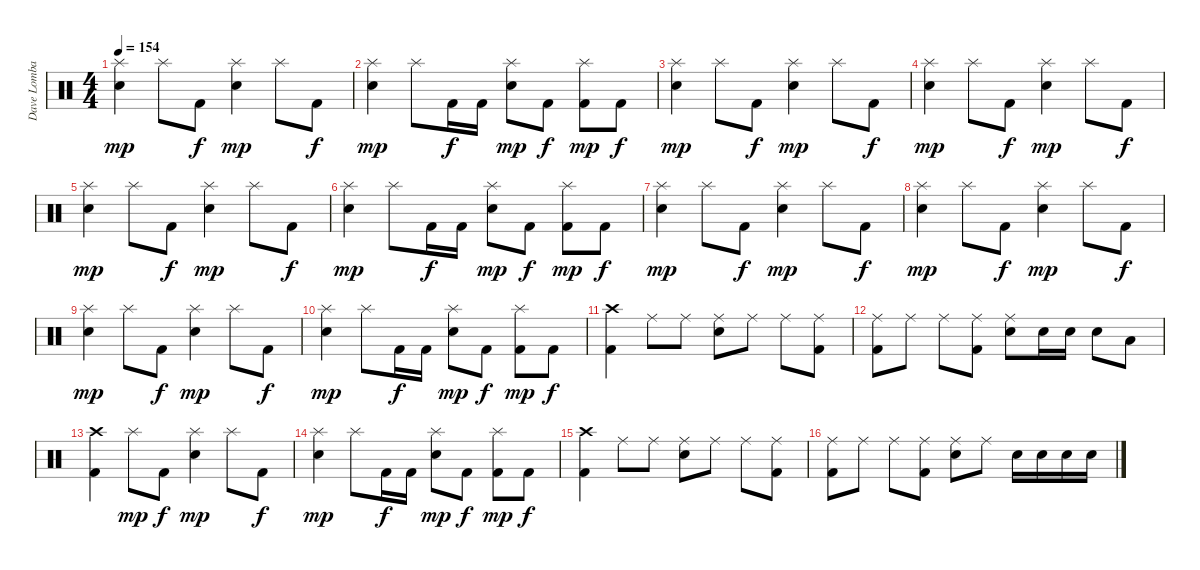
\track ("Dave Lombardo" "Dave Lomba") {instrument percussion}
\staff {score}
\articulation defaults
\ts (4 4)
\tempo 154
\clef neutral
\ks c
("Splash (hit)" "Snare (hit) 2").4{dy mp} "Splash (hit)".8 "Kick (hit) 2".8{dy f} ("Splash (hit)" "Snare (hit) 2").4{dy mp} "Splash (hit)".8 "Kick (hit) 2".8{dy f} |
("Splash (hit)" "Snare (hit) 2").4{dy mp} "Splash (hit)".8 "Kick (hit) 2".16{dy f} "Kick (hit) 2".16 ("Splash (hit)" "Snare (hit) 2").8{dy mp} "Kick (hit) 2".8{dy f} ("Splash (hit)" "Kick (hit) 2").8{dy mp} "Kick (hit) 2".8{dy f} |
("Splash (hit)" "Snare (hit) 2").4{dy mp} "Splash (hit)".8 "Kick (hit) 2".8{dy f} ("Splash (hit)" "Snare (hit) 2").4{dy mp} "Splash (hit)".8 "Kick (hit) 2".8{dy f} |
("Splash (hit)" "Snare (hit) 2").4{dy mp} "Splash (hit)".8 "Kick (hit) 2".8{dy f} ("Splash (hit)" "Snare (hit) 2").4{dy mp} "Splash (hit)".8 "Kick (hit) 2".8{dy f} |
("Splash (hit)" "Snare (hit) 2").4{dy mp} "Splash (hit)".8 "Kick (hit) 2".8{dy f} ("Splash (hit)" "Snare (hit) 2").4{dy mp} "Splash (hit)".8 "Kick (hit) 2".8{dy f} |
("Splash (hit)" "Snare (hit) 2").4{dy mp} "Splash (hit)".8 "Kick (hit) 2".16{dy f} "Kick (hit) 2".16 ("Splash (hit)" "Snare (hit) 2").8{dy mp} "Kick (hit) 2".8{dy f} ("Splash (hit)" "Kick (hit) 2").8{dy mp} "Kick (hit) 2".8{dy f} |
("Splash (hit)" "Snare (hit) 2").4{dy mp} "Splash (hit)".8 "Kick (hit) 2".8{dy f} ("Splash (hit)" "Snare (hit) 2").4{dy mp} "Splash (hit)".8 "Kick (hit) 2".8{dy f} |
("Splash (hit)" "Snare (hit) 2").4{dy mp} "Splash (hit)".8 "Kick (hit) 2".8{dy f} ("Splash (hit)" "Snare (hit) 2").4{dy mp} "Splash (hit)".8 "Kick (hit) 2".8{dy f} |
("Splash (hit)" "Snare (hit) 2").4{dy mp} "Splash (hit)".8 "Kick (hit) 2".8{dy f} ("Splash (hit)" "Snare (hit) 2").4{dy mp} "Splash (hit)".8 "Kick (hit) 2".8{dy f} |
("Splash (hit)" "Snare (hit) 2").4{dy mp} "Splash (hit)".8 "Kick (hit) 2".16{dy f} "Kick (hit) 2".16 ("Splash (hit)" "Snare (hit) 2").8{dy mp} "Kick (hit) 2".8{dy f} ("Splash (hit)" "Kick (hit) 2").8{dy mp} "Kick (hit) 2".8{dy f} |
("Crash high (hit)" "Kick (hit) 2").4 "Ride (middle)".8 "Ride (middle)".8 ("Ride (middle)" "Snare (hit) 2").8 "Ride (middle)".8 "Ride (middle)".8 ("Ride (middle)" "Kick (hit) 2").8 |
("Ride (middle)" "Kick (hit) 2").8 "Ride (middle)".8 "Ride (middle)".8 ("Ride (middle)" "Kick (hit) 2").8 ("Ride (middle)" "Snare (hit) 2").8 "Snare (hit) 2".16 "Snare (hit) 2".16 "Snare (hit) 2".8 "Low Floor Tom (hit)".8 |
("Crash high (hit)" "Kick (hit) 2").4 "Splash (hit)".8{dy mp} "Kick (hit) 2".8{dy f} ("Splash (hit)" "Snare (hit) 2").4{dy mp} "Splash (hit)".8 "Kick (hit) 2".8{dy f} |
("Splash (hit)" "Snare (hit) 2").4{dy mp} "Splash (hit)".8 "Kick (hit) 2".16{dy f} "Kick (hit) 2".16 ("Splash (hit)" "Snare (hit) 2").8{dy mp} "Kick (hit) 2".8{dy f} ("Splash (hit)" "Kick (hit) 2").8{dy mp} "Kick (hit) 2".8{dy f} |
("Crash high (hit)" "Kick (hit) 2").4 "Ride (middle)".8 "Ride (middle)".8 ("Ride (middle)" "Snare (hit) 2").8 "Ride (middle)".8 "Ride (middle)".8 ("Ride (middle)" "Kick (hit) 2").8 |
("Ride (middle)" "Kick (hit) 2").8 "Ride (middle)".8 "Ride (middle)".8 ("Ride (middle)" "Kick (hit) 2").8 ("Ride (middle)" "Snare (hit) 2").8 "Ride (middle)".8 "Snare (hit) 2".16 "Snare (hit) 2".16 "Snare (hit) 2".16 "Snare (hit) 2".16
